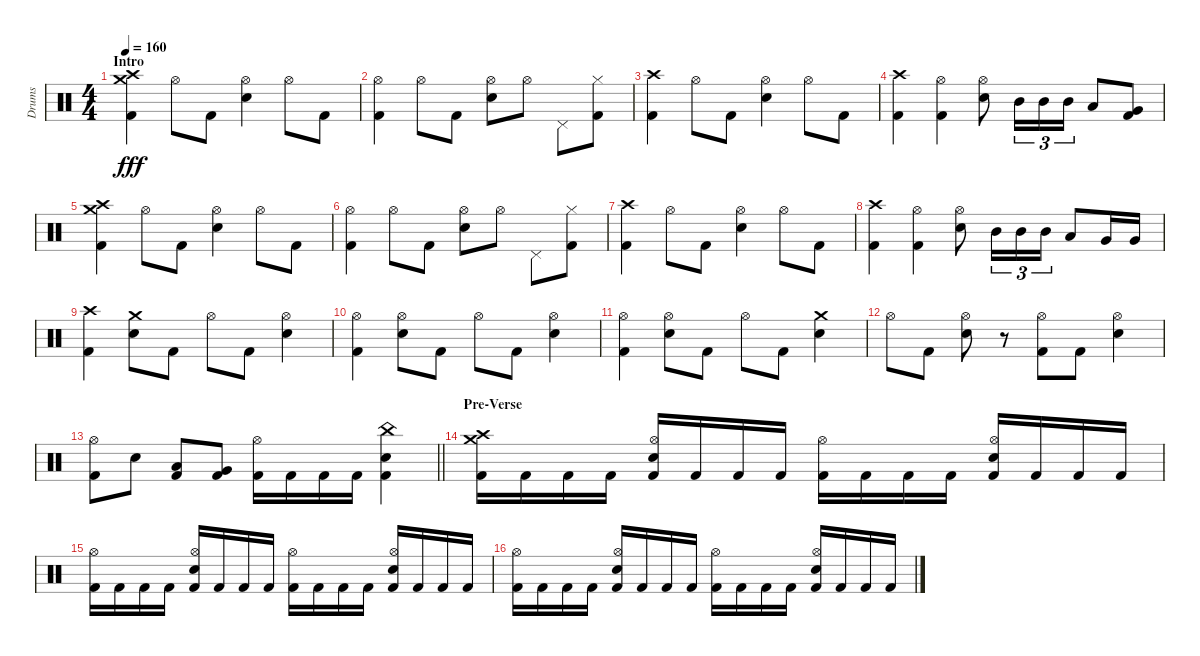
\track ("Drums" "Drums") {instrument percussion}
\staff {score}
\articulation defaults
\ts (4 4)
\section ("" "Intro")
\tempo 160
\clef neutral
\ks c
("Crash high (hit)" "Crash medium (hit)" "Kick (hit) 2").4{dy fff} "Hi-Hat (open)".8 "Kick (hit) 2".8 ("Snare (hit) 2" "Hi-Hat (open)").4 "Hi-Hat (open)".8 "Kick (hit) 2".8 |
("Hi-Hat (open)" "Kick (hit) 2").4 "Hi-Hat (open)".8 "Kick (hit) 2".8 ("Snare (hit) 2" "Hi-Hat (open)").8 "Hi-Hat (open)".8 "Pedal Hi-Hat (hit)".8 ("Hi-Hat (closed)" "Kick (hit) 2").8 |
("Crash high (hit)" "Kick (hit) 2").4 "Hi-Hat (open)".8 "Kick (hit) 2".8 ("Snare (hit) 2" "Hi-Hat (open)").4 "Hi-Hat (open)".8 "Kick (hit) 2".8 |
("Crash high (hit)" "Kick (hit) 2").4 ("Hi-Hat (open)" "Kick (hit) 2").4 ("Snare (hit) 2" "Hi-Hat (open)").8 "Mid Tom (hit)".16{tu (3 2)} "Mid Tom (hit)".16{tu (3 2)} "Mid Tom (hit)".16{tu (3 2)} "Low Tom (hit)".8 ("Very Low Tom (hit)" "Kick (hit) 2").8 |
("Crash high (hit)" "Crash medium (hit)" "Kick (hit) 2").4 "Hi-Hat (open)".8 "Kick (hit) 2".8 ("Snare (hit) 2" "Hi-Hat (open)").4 "Hi-Hat (open)".8 "Kick (hit) 2".8 |
("Hi-Hat (open)" "Kick (hit) 2").4 "Hi-Hat (open)".8 "Kick (hit) 2".8 ("Snare (hit) 2" "Hi-Hat (open)").8 "Hi-Hat (open)".8 "Pedal Hi-Hat (hit)".8 ("Hi-Hat (closed)" "Kick (hit) 2").8 |
("Crash high (hit)" "Kick (hit) 2").4 "Hi-Hat (open)".8 "Kick (hit) 2".8 ("Snare (hit) 2" "Hi-Hat (open)").4 "Hi-Hat (open)".8 "Kick (hit) 2".8 |
("Crash high (hit)" "Kick (hit) 2").4 ("Hi-Hat (open)" "Kick (hit) 2").4 ("Snare (hit) 2" "Hi-Hat (open)").8 "Mid Tom (hit)".16{tu (3 2)} "Mid Tom (hit)".16{tu (3 2)} "Mid Tom (hit)".16{tu (3 2)} "Low Tom (hit)".8 "Very Low Tom (hit)".16 "Very Low Tom (hit)".16 |
("Crash high (hit)" "Kick (hit) 2").4 ("Crash medium (hit)" "Snare (hit) 2").8 "Kick (hit) 2".8 "Hi-Hat (open)".8 "Kick (hit) 2".8 ("Snare (hit) 2" "Hi-Hat (open)").4 |
("Hi-Hat (open)" "Kick (hit) 2").4 ("Snare (hit) 2" "Hi-Hat (open)").8 "Kick (hit) 2".8 "Hi-Hat (open)".8 "Kick (hit) 2".8 ("Snare (hit) 2" "Hi-Hat (open)").4 |
("Hi-Hat (open)" "Kick (hit) 2").4 ("Snare (hit) 2" "Hi-Hat (open)").8 "Kick (hit) 2".8 "Hi-Hat (open)".8 "Kick (hit) 2".8 ("Crash medium (hit)" "Snare (hit) 2").4 |
"Hi-Hat (open)".8 "Kick (hit) 2".8 ("Snare (hit) 2" "Hi-Hat (open)").8 r.8 ("Hi-Hat (open)" "Kick (hit) 2").8 "Kick (hit) 2".8 ("Snare (hit) 2" "Hi-Hat (open)").4 |
\barLineRight lightlight
("Hi-Hat (open)" "Kick (hit) 2").8 "Snare (hit) 2".8 ("Low Tom (hit)" "Kick (hit) 2").8 ("Very Low Tom (hit)" "Kick (hit) 2").8 ("Hi-Hat (open)" "Kick (hit) 2").16 "Kick (hit) 2".16 "Kick (hit) 2".16 "Kick (hit) 2".16 ("China (hit)" "Snare (hit) 2" "Kick (hit) 2").4 |
\section ("" "Pre-Verse")
("Crash high (hit)" "Crash medium (hit)" "Kick (hit) 2").16 "Kick (hit) 2".16 "Kick (hit) 2".16 "Kick (hit) 2".16 ("Snare (hit) 2" "Hi-Hat (open)" "Kick (hit) 2").16 "Kick (hit) 2".16 "Kick (hit) 2".16 "Kick (hit) 2".16 ("Hi-Hat (open)" "Kick (hit) 2").16 "Kick (hit) 2".16 "Kick (hit) 2".16 "Kick (hit) 2".16 ("Snare (hit) 2" "Hi-Hat (open)" "Kick (hit) 2").16 "Kick (hit) 2".16 "Kick (hit) 2".16 "Kick (hit) 2".16 |
("Hi-Hat (open)" "Kick (hit) 2").16 "Kick (hit) 2".16 "Kick (hit) 2".16 "Kick (hit) 2".16 ("Snare (hit) 2" "Hi-Hat (open)" "Kick (hit) 2").16 "Kick (hit) 2".16 "Kick (hit) 2".16 "Kick (hit) 2".16 ("Hi-Hat (open)" "Kick (hit) 2").16 "Kick (hit) 2".16 "Kick (hit) 2".16 "Kick (hit) 2".16 ("Snare (hit) 2" "Hi-Hat (open)" "Kick (hit) 2").16 "Kick (hit) 2".16 "Kick (hit) 2".16 "Kick (hit) 2".16 |
("Hi-Hat (open)" "Kick (hit) 2").16 "Kick (hit) 2".16 "Kick (hit) 2".16 "Kick (hit) 2".16 ("Snare (hit) 2" "Hi-Hat (open)" "Kick (hit) 2").16 "Kick (hit) 2".16 "Kick (hit) 2".16 "Kick (hit) 2".16 ("Hi-Hat (open)" "Kick (hit) 2").16 "Kick (hit) 2".16 "Kick (hit) 2".16 "Kick (hit) 2".16 ("Snare (hit) 2" "Hi-Hat (open)" "Kick (hit) 2").16 "Kick (hit) 2".16 "Kick (hit) 2".16 "Kick (hit) 2".16
